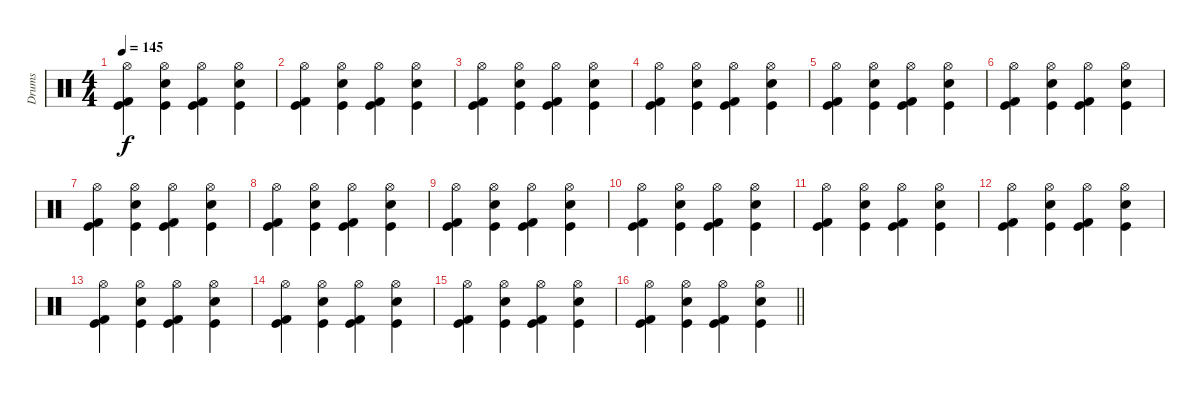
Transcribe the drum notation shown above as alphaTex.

\track ("Drums" "Drums") {instrument percussion}
\staff {score}
\articulation defaults
\ts (4 4)
\tempo 145
\clef neutral
\ks c
("Hi-Hat (open)" "Kick (hit) 2" "Kick (hit)").4{dy f} ("Hi-Hat (open)" "Electric Snare (hit)" "Kick (hit)").4 ("Hi-Hat (open)" "Kick (hit) 2" "Kick (hit)").4 ("Hi-Hat (open)" "Electric Snare (hit)" "Kick (hit)").4 |
("Hi-Hat (open)" "Kick (hit) 2" "Kick (hit)").4 ("Hi-Hat (open)" "Electric Snare (hit)" "Kick (hit)").4 ("Hi-Hat (open)" "Kick (hit) 2" "Kick (hit)").4 ("Hi-Hat (open)" "Electric Snare (hit)" "Kick (hit)").4 |
("Hi-Hat (open)" "Kick (hit) 2" "Kick (hit)").4 ("Hi-Hat (open)" "Electric Snare (hit)" "Kick (hit)").4 ("Hi-Hat (open)" "Kick (hit) 2" "Kick (hit)").4 ("Hi-Hat (open)" "Electric Snare (hit)" "Kick (hit)").4 |
("Hi-Hat (open)" "Kick (hit) 2" "Kick (hit)").4 ("Hi-Hat (open)" "Electric Snare (hit)" "Kick (hit)").4 ("Hi-Hat (open)" "Kick (hit) 2" "Kick (hit)").4 ("Hi-Hat (open)" "Electric Snare (hit)" "Kick (hit)").4 |
("Hi-Hat (open)" "Kick (hit) 2" "Kick (hit)").4 ("Hi-Hat (open)" "Electric Snare (hit)" "Kick (hit)").4 ("Hi-Hat (open)" "Kick (hit) 2" "Kick (hit)").4 ("Hi-Hat (open)" "Electric Snare (hit)" "Kick (hit)").4 |
("Hi-Hat (open)" "Kick (hit) 2" "Kick (hit)").4 ("Hi-Hat (open)" "Electric Snare (hit)" "Kick (hit)").4 ("Hi-Hat (open)" "Kick (hit) 2" "Kick (hit)").4 ("Hi-Hat (open)" "Electric Snare (hit)" "Kick (hit)").4 |
("Hi-Hat (open)" "Kick (hit) 2" "Kick (hit)").4 ("Hi-Hat (open)" "Electric Snare (hit)" "Kick (hit)").4 ("Hi-Hat (open)" "Kick (hit) 2" "Kick (hit)").4 ("Hi-Hat (open)" "Electric Snare (hit)" "Kick (hit)").4 |
("Hi-Hat (open)" "Kick (hit) 2" "Kick (hit)").4 ("Hi-Hat (open)" "Electric Snare (hit)" "Kick (hit)").4 ("Hi-Hat (open)" "Kick (hit) 2" "Kick (hit)").4 ("Hi-Hat (open)" "Electric Snare (hit)" "Kick (hit)").4 |
("Hi-Hat (open)" "Kick (hit) 2" "Kick (hit)").4 ("Hi-Hat (open)" "Electric Snare (hit)" "Kick (hit)").4 ("Hi-Hat (open)" "Kick (hit) 2" "Kick (hit)").4 ("Hi-Hat (open)" "Electric Snare (hit)" "Kick (hit)").4 |
("Hi-Hat (open)" "Kick (hit) 2" "Kick (hit)").4 ("Hi-Hat (open)" "Electric Snare (hit)" "Kick (hit)").4 ("Hi-Hat (open)" "Kick (hit) 2" "Kick (hit)").4 ("Hi-Hat (open)" "Electric Snare (hit)" "Kick (hit)").4 |
("Hi-Hat (open)" "Kick (hit) 2" "Kick (hit)").4 ("Hi-Hat (open)" "Electric Snare (hit)" "Kick (hit)").4 ("Hi-Hat (open)" "Kick (hit) 2" "Kick (hit)").4 ("Hi-Hat (open)" "Electric Snare (hit)" "Kick (hit)").4 |
("Hi-Hat (open)" "Kick (hit) 2" "Kick (hit)").4 ("Hi-Hat (open)" "Electric Snare (hit)" "Kick (hit)").4 ("Hi-Hat (open)" "Kick (hit) 2" "Kick (hit)").4 ("Hi-Hat (open)" "Electric Snare (hit)" "Kick (hit)").4 |
("Hi-Hat (open)" "Kick (hit) 2" "Kick (hit)").4 ("Hi-Hat (open)" "Electric Snare (hit)" "Kick (hit)").4 ("Hi-Hat (open)" "Kick (hit) 2" "Kick (hit)").4 ("Hi-Hat (open)" "Electric Snare (hit)" "Kick (hit)").4 |
("Hi-Hat (open)" "Kick (hit) 2" "Kick (hit)").4 ("Hi-Hat (open)" "Electric Snare (hit)" "Kick (hit)").4 ("Hi-Hat (open)" "Kick (hit) 2" "Kick (hit)").4 ("Hi-Hat (open)" "Electric Snare (hit)" "Kick (hit)").4 |
("Hi-Hat (open)" "Kick (hit) 2" "Kick (hit)").4 ("Hi-Hat (open)" "Electric Snare (hit)" "Kick (hit)").4 ("Hi-Hat (open)" "Kick (hit) 2" "Kick (hit)").4 ("Hi-Hat (open)" "Electric Snare (hit)" "Kick (hit)").4 |
\barLineRight lightlight
("Hi-Hat (open)" "Kick (hit) 2" "Kick (hit)").4 ("Hi-Hat (open)" "Electric Snare (hit)" "Kick (hit)").4 ("Hi-Hat (open)" "Kick (hit) 2" "Kick (hit)").4 ("Hi-Hat (open)" "Electric Snare (hit)" "Kick (hit)").4
